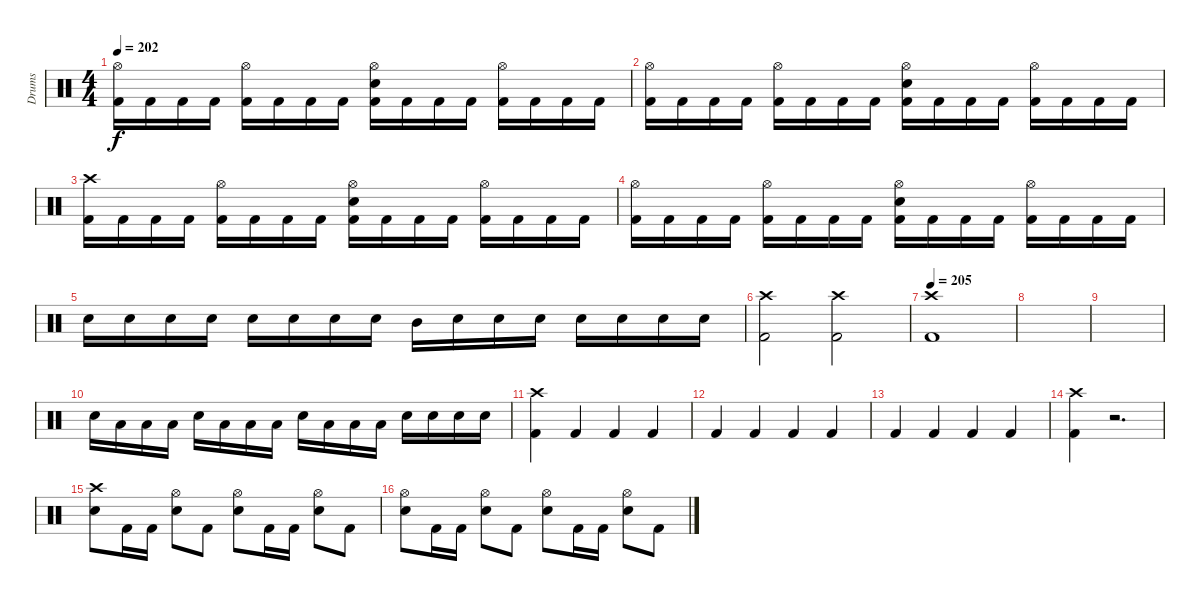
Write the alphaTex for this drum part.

\track ("Drums" "Drums") {instrument percussion bank 169}
\staff {score}
\articulation defaults
\ts (4 4)
\tempo 202
\clef neutral
\ks c
("Hi-Hat (open)" "Kick (hit) 2").16{dy f} "Kick (hit) 2".16 "Kick (hit) 2".16 "Kick (hit) 2".16 ("Hi-Hat (open)" "Kick (hit) 2").16 "Kick (hit) 2".16 "Kick (hit) 2".16 "Kick (hit) 2".16 ("Hi-Hat (open)" "Snare (hit) 2" "Kick (hit) 2").16 "Kick (hit) 2".16 "Kick (hit) 2".16 "Kick (hit) 2".16 ("Hi-Hat (open)" "Kick (hit) 2").16 "Kick (hit) 2".16 "Kick (hit) 2".16 "Kick (hit) 2".16 |
("Hi-Hat (open)" "Kick (hit) 2").16 "Kick (hit) 2".16 "Kick (hit) 2".16 "Kick (hit) 2".16 ("Hi-Hat (open)" "Kick (hit) 2").16 "Kick (hit) 2".16 "Kick (hit) 2".16 "Kick (hit) 2".16 ("Hi-Hat (open)" "Snare (hit) 2" "Kick (hit) 2").16 "Kick (hit) 2".16 "Kick (hit) 2".16 "Kick (hit) 2".16 ("Hi-Hat (open)" "Kick (hit) 2").16 "Kick (hit) 2".16 "Kick (hit) 2".16 "Kick (hit) 2".16 |
("Crash high (hit)" "Kick (hit) 2").16 "Kick (hit) 2".16 "Kick (hit) 2".16 "Kick (hit) 2".16 ("Hi-Hat (open)" "Kick (hit) 2").16 "Kick (hit) 2".16 "Kick (hit) 2".16 "Kick (hit) 2".16 ("Hi-Hat (open)" "Snare (hit) 2" "Kick (hit) 2").16 "Kick (hit) 2".16 "Kick (hit) 2".16 "Kick (hit) 2".16 ("Hi-Hat (open)" "Kick (hit) 2").16 "Kick (hit) 2".16 "Kick (hit) 2".16 "Kick (hit) 2".16 |
("Hi-Hat (open)" "Kick (hit) 2").16 "Kick (hit) 2".16 "Kick (hit) 2".16 "Kick (hit) 2".16 ("Hi-Hat (open)" "Kick (hit) 2").16 "Kick (hit) 2".16 "Kick (hit) 2".16 "Kick (hit) 2".16 ("Hi-Hat (open)" "Snare (hit) 2" "Kick (hit) 2").16 "Kick (hit) 2".16 "Kick (hit) 2".16 "Kick (hit) 2".16 ("Hi-Hat (open)" "Kick (hit) 2").16 "Kick (hit) 2".16 "Kick (hit) 2".16 "Kick (hit) 2".16 |
"Snare (hit) 2".16 "Snare (hit) 2".16 "Snare (hit) 2".16 "Snare (hit) 2".16 "Snare (hit) 2".16 "Snare (hit) 2".16 "Snare (hit) 2".16 "Snare (hit) 2".16 "Mid Tom (hit)".16 "Snare (hit) 2".16 "Snare (hit) 2".16 "Snare (hit) 2".16 "Snare (hit) 2".16 "Snare (hit) 2".16 "Snare (hit) 2".16 "Snare (hit) 2".16 |
("Crash high (hit)"{x} "Kick (hit) 2").2 ("Crash high (hit)"{x} "Kick (hit) 2").2 |
\tempo 205
("Crash high (hit)"{x} "Kick (hit) 2").1 |
|
|
"Snare (hit) 2".16 "Low Tom (hit)".16 "Low Tom (hit)".16 "Low Tom (hit)".16 "Snare (hit) 2".16 "Low Tom (hit)".16 "Low Tom (hit)".16 "Low Tom (hit)".16 "Snare (hit) 2".16 "Low Tom (hit)".16 "Low Tom (hit)".16 "Low Tom (hit)".16 "Snare (hit) 2".16 "Snare (hit) 2".16 "Snare (hit) 2".16 "Snare (hit) 2".16 |
("Crash high (hit)" "Kick (hit) 2").4 "Kick (hit) 2".4 "Kick (hit) 2".4 "Kick (hit) 2".4 |
"Kick (hit) 2".4 "Kick (hit) 2".4 "Kick (hit) 2".4 "Kick (hit) 2".4 |
"Kick (hit) 2".4 "Kick (hit) 2".4 "Kick (hit) 2".4 "Kick (hit) 2".4 |
("Crash high (hit)" "Kick (hit) 2").4 r.2{d} |
("Crash high (hit)" "Snare (hit) 2").8 "Kick (hit) 2".16 "Kick (hit) 2".16 ("Hi-Hat (open)" "Snare (hit) 2").8 "Kick (hit) 2".8 ("Hi-Hat (open)" "Snare (hit) 2").8 "Kick (hit) 2".16 "Kick (hit) 2".16 ("Hi-Hat (open)" "Snare (hit) 2").8 "Kick (hit) 2".8 |
("Hi-Hat (open)" "Snare (hit) 2").8 "Kick (hit) 2".16 "Kick (hit) 2".16 ("Hi-Hat (open)" "Snare (hit) 2").8 "Kick (hit) 2".8 ("Hi-Hat (open)" "Snare (hit) 2").8 "Kick (hit) 2".16 "Kick (hit) 2".16 ("Hi-Hat (open)" "Snare (hit) 2").8 "Kick (hit) 2".8
